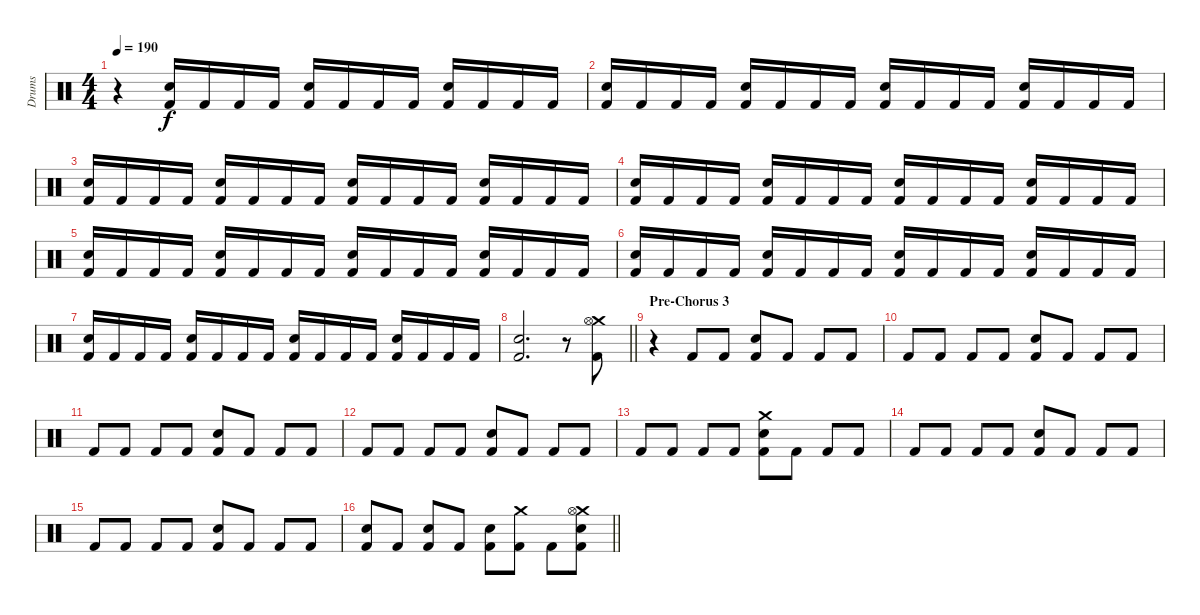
\track ("Drums" "Drums") {instrument percussion}
\staff {score}
\articulation defaults
\ts (4 4)
\tempo 190
\clef neutral
\ks c
r.4{dy f} ("Kick (hit) 2" "Electric Snare (hit)").16 "Kick (hit) 2".16 "Kick (hit) 2".16 "Kick (hit) 2".16 ("Kick (hit) 2" "Electric Snare (hit)").16 "Kick (hit) 2".16 "Kick (hit) 2".16 "Kick (hit) 2".16 ("Kick (hit) 2" "Electric Snare (hit)").16 "Kick (hit) 2".16 "Kick (hit) 2".16 "Kick (hit) 2".16 |
("Kick (hit) 2" "Electric Snare (hit)").16 "Kick (hit) 2".16 "Kick (hit) 2".16 "Kick (hit) 2".16 ("Kick (hit) 2" "Electric Snare (hit)").16 "Kick (hit) 2".16 "Kick (hit) 2".16 "Kick (hit) 2".16 ("Kick (hit) 2" "Electric Snare (hit)").16 "Kick (hit) 2".16 "Kick (hit) 2".16 "Kick (hit) 2".16 ("Kick (hit) 2" "Electric Snare (hit)").16 "Kick (hit) 2".16 "Kick (hit) 2".16 "Kick (hit) 2".16 |
("Kick (hit) 2" "Electric Snare (hit)").16 "Kick (hit) 2".16 "Kick (hit) 2".16 "Kick (hit) 2".16 ("Kick (hit) 2" "Electric Snare (hit)").16 "Kick (hit) 2".16 "Kick (hit) 2".16 "Kick (hit) 2".16 ("Kick (hit) 2" "Electric Snare (hit)").16 "Kick (hit) 2".16 "Kick (hit) 2".16 "Kick (hit) 2".16 ("Kick (hit) 2" "Electric Snare (hit)").16 "Kick (hit) 2".16 "Kick (hit) 2".16 "Kick (hit) 2".16 |
("Kick (hit) 2" "Electric Snare (hit)").16 "Kick (hit) 2".16 "Kick (hit) 2".16 "Kick (hit) 2".16 ("Kick (hit) 2" "Electric Snare (hit)").16 "Kick (hit) 2".16 "Kick (hit) 2".16 "Kick (hit) 2".16 ("Kick (hit) 2" "Electric Snare (hit)").16 "Kick (hit) 2".16 "Kick (hit) 2".16 "Kick (hit) 2".16 ("Kick (hit) 2" "Electric Snare (hit)").16 "Kick (hit) 2".16 "Kick (hit) 2".16 "Kick (hit) 2".16 |
("Kick (hit) 2" "Electric Snare (hit)").16 "Kick (hit) 2".16 "Kick (hit) 2".16 "Kick (hit) 2".16 ("Kick (hit) 2" "Electric Snare (hit)").16 "Kick (hit) 2".16 "Kick (hit) 2".16 "Kick (hit) 2".16 ("Kick (hit) 2" "Electric Snare (hit)").16 "Kick (hit) 2".16 "Kick (hit) 2".16 "Kick (hit) 2".16 ("Kick (hit) 2" "Electric Snare (hit)").16 "Kick (hit) 2".16 "Kick (hit) 2".16 "Kick (hit) 2".16 |
("Kick (hit) 2" "Electric Snare (hit)").16 "Kick (hit) 2".16 "Kick (hit) 2".16 "Kick (hit) 2".16 ("Kick (hit) 2" "Electric Snare (hit)").16 "Kick (hit) 2".16 "Kick (hit) 2".16 "Kick (hit) 2".16 ("Kick (hit) 2" "Electric Snare (hit)").16 "Kick (hit) 2".16 "Kick (hit) 2".16 "Kick (hit) 2".16 ("Kick (hit) 2" "Electric Snare (hit)").16 "Kick (hit) 2".16 "Kick (hit) 2".16 "Kick (hit) 2".16 |
("Kick (hit) 2" "Electric Snare (hit)").16 "Kick (hit) 2".16 "Kick (hit) 2".16 "Kick (hit) 2".16 ("Kick (hit) 2" "Electric Snare (hit)").16 "Kick (hit) 2".16 "Kick (hit) 2".16 "Kick (hit) 2".16 ("Kick (hit) 2" "Electric Snare (hit)").16 "Kick (hit) 2".16 "Kick (hit) 2".16 "Kick (hit) 2".16 ("Kick (hit) 2" "Electric Snare (hit)").16 "Kick (hit) 2".16 "Kick (hit) 2".16 "Kick (hit) 2".16 |
\barLineRight lightlight
("Kick (hit) 2" "Electric Snare (hit)").2{d} r.8 ("Crash medium (hit)" "Hi-Hat (open)" "Kick (hit) 2").8 |
\section ("" "Pre-Chorus 3")
r.4 "Kick (hit) 2".8 "Kick (hit) 2".8 ("Kick (hit) 2" "Electric Snare (hit)").8 "Kick (hit) 2".8 "Kick (hit) 2".8 "Kick (hit) 2".8 |
"Kick (hit) 2".8 "Kick (hit) 2".8 "Kick (hit) 2".8 "Kick (hit) 2".8 ("Kick (hit) 2" "Electric Snare (hit)").8 "Kick (hit) 2".8 "Kick (hit) 2".8 "Kick (hit) 2".8 |
"Kick (hit) 2".8 "Kick (hit) 2".8 "Kick (hit) 2".8 "Kick (hit) 2".8 ("Kick (hit) 2" "Electric Snare (hit)").8 "Kick (hit) 2".8 "Kick (hit) 2".8 "Kick (hit) 2".8 |
"Kick (hit) 2".8 "Kick (hit) 2".8 "Kick (hit) 2".8 "Kick (hit) 2".8 ("Kick (hit) 2" "Electric Snare (hit)").8 "Kick (hit) 2".8 "Kick (hit) 2".8 "Kick (hit) 2".8 |
"Kick (hit) 2".8 "Kick (hit) 2".8 "Kick (hit) 2".8 "Kick (hit) 2".8 ("Crash medium (hit)" "Kick (hit) 2" "Electric Snare (hit)").8 "Kick (hit) 2".8 "Kick (hit) 2".8 "Kick (hit) 2".8 |
"Kick (hit) 2".8 "Kick (hit) 2".8 "Kick (hit) 2".8 "Kick (hit) 2".8 ("Kick (hit) 2" "Electric Snare (hit)").8 "Kick (hit) 2".8 "Kick (hit) 2".8 "Kick (hit) 2".8 |
"Kick (hit) 2".8 "Kick (hit) 2".8 "Kick (hit) 2".8 "Kick (hit) 2".8 ("Kick (hit) 2" "Electric Snare (hit)").8 "Kick (hit) 2".8 "Kick (hit) 2".8 "Kick (hit) 2".8 |
\barLineRight lightlight
("Kick (hit) 2" "Electric Snare (hit)").8 "Kick (hit) 2".8 ("Kick (hit) 2" "Electric Snare (hit)").8 "Kick (hit) 2".8 ("Kick (hit) 2" "Electric Snare (hit)").8 ("Crash medium (hit)" "Kick (hit) 2").8 "Kick (hit) 2".8 ("Crash medium (hit)" "Hi-Hat (open)" "Kick (hit) 2" "Electric Snare (hit)").8
